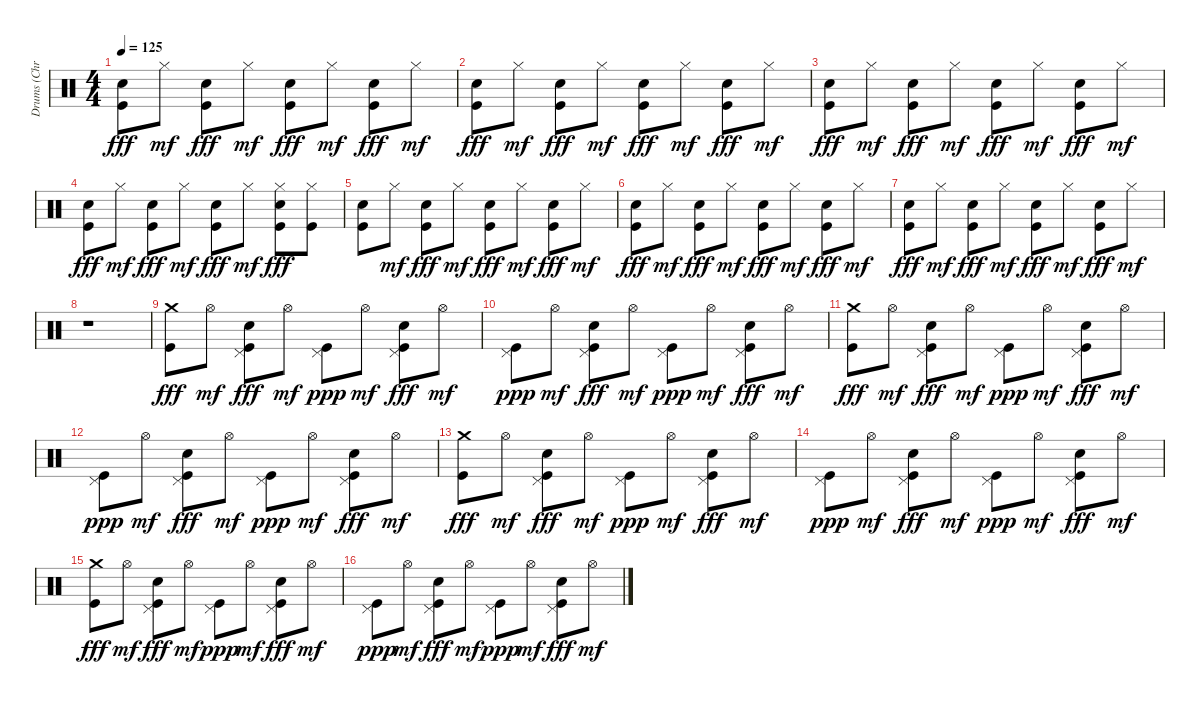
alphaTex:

\track ("Drums (Christoph)" "Drums (Chr") {instrument percussion}
\staff {score}
\articulation defaults
\ts (4 4)
\tempo 125
\clef neutral
\ks c
("Kick (hit)" "Electric Snare (hit)").8{dy fff} "Hi-Hat (closed)".8{dy mf} ("Kick (hit)" "Electric Snare (hit)").8{dy fff} "Hi-Hat (closed)".8{dy mf} ("Kick (hit)" "Electric Snare (hit)").8{dy fff} "Hi-Hat (closed)".8{dy mf} ("Kick (hit)" "Electric Snare (hit)").8{dy fff} "Hi-Hat (closed)".8{dy mf} |
("Kick (hit)" "Electric Snare (hit)").8{dy fff} "Hi-Hat (closed)".8{dy mf} ("Kick (hit)" "Electric Snare (hit)").8{dy fff} "Hi-Hat (closed)".8{dy mf} ("Kick (hit)" "Electric Snare (hit)").8{dy fff} "Hi-Hat (closed)".8{dy mf} ("Kick (hit)" "Electric Snare (hit)").8{dy fff} "Hi-Hat (closed)".8{dy mf} |
("Kick (hit)" "Electric Snare (hit)").8{dy fff} "Hi-Hat (closed)".8{dy mf} ("Kick (hit)" "Electric Snare (hit)").8{dy fff} "Hi-Hat (closed)".8{dy mf} ("Kick (hit)" "Electric Snare (hit)").8{dy fff} "Hi-Hat (closed)".8{dy mf} ("Kick (hit)" "Electric Snare (hit)").8{dy fff} "Hi-Hat (closed)".8{dy mf} |
("Kick (hit)" "Electric Snare (hit)").8{dy fff} "Hi-Hat (closed)".8{dy mf} ("Kick (hit)" "Electric Snare (hit)").8{dy fff} "Hi-Hat (closed)".8{dy mf} ("Kick (hit)" "Electric Snare (hit)").8{dy fff} "Hi-Hat (closed)".8{dy mf} ("Electric Snare (hit)" "Hi-Hat (closed)" "Kick (hit)").8{dy fff} ("Hi-Hat (closed)" "Kick (hit)").8 |
("Electric Snare (hit)" "Kick (hit)").8 "Hi-Hat (closed)".8{dy mf} ("Electric Snare (hit)" "Kick (hit)").8{dy fff} "Hi-Hat (closed)".8{dy mf} ("Electric Snare (hit)" "Kick (hit)").8{dy fff} "Hi-Hat (closed)".8{dy mf} ("Electric Snare (hit)" "Kick (hit)").8{dy fff} "Hi-Hat (closed)".8{dy mf} |
("Electric Snare (hit)" "Kick (hit)").8{dy fff} "Hi-Hat (closed)".8{dy mf} ("Electric Snare (hit)" "Kick (hit)").8{dy fff} "Hi-Hat (closed)".8{dy mf} ("Electric Snare (hit)" "Kick (hit)").8{dy fff} "Hi-Hat (closed)".8{dy mf} ("Electric Snare (hit)" "Kick (hit)").8{dy fff} "Hi-Hat (closed)".8{dy mf} |
("Electric Snare (hit)" "Kick (hit)").8{dy fff} "Hi-Hat (closed)".8{dy mf} ("Electric Snare (hit)" "Kick (hit)").8{dy fff} "Hi-Hat (closed)".8{dy mf} ("Electric Snare (hit)" "Kick (hit)").8{dy fff} "Hi-Hat (closed)".8{dy mf} ("Electric Snare (hit)" "Kick (hit)").8{dy fff} "Hi-Hat (closed)".8{dy mf} |
r.1 |
("Kick (hit)" "Crash medium (hit)").8{dy fff} "Hi-Hat (open)".8{dy mf} ("Kick (hit)" "Pedal Hi-Hat (hit)" "Electric Snare (hit)").8{dy fff} "Hi-Hat (open)".8{dy mf} ("Kick (hit)" "Pedal Hi-Hat (hit)").8{dy ppp} "Hi-Hat (open)".8{dy mf} ("Kick (hit)" "Pedal Hi-Hat (hit)" "Electric Snare (hit)").8{dy fff} "Hi-Hat (open)".8{dy mf} |
("Kick (hit)" "Pedal Hi-Hat (hit)").8{dy ppp} "Hi-Hat (open)".8{dy mf} ("Kick (hit)" "Pedal Hi-Hat (hit)" "Electric Snare (hit)").8{dy fff} "Hi-Hat (open)".8{dy mf} ("Kick (hit)" "Pedal Hi-Hat (hit)").8{dy ppp} "Hi-Hat (open)".8{dy mf} ("Kick (hit)" "Pedal Hi-Hat (hit)" "Electric Snare (hit)").8{dy fff} "Hi-Hat (open)".8{dy mf} |
("Kick (hit)" "Crash medium (hit)").8{dy fff} "Hi-Hat (open)".8{dy mf} ("Kick (hit)" "Pedal Hi-Hat (hit)" "Electric Snare (hit)").8{dy fff} "Hi-Hat (open)".8{dy mf} ("Kick (hit)" "Pedal Hi-Hat (hit)").8{dy ppp} "Hi-Hat (open)".8{dy mf} ("Kick (hit)" "Pedal Hi-Hat (hit)" "Electric Snare (hit)").8{dy fff} "Hi-Hat (open)".8{dy mf} |
("Kick (hit)" "Pedal Hi-Hat (hit)").8{dy ppp} "Hi-Hat (open)".8{dy mf} ("Kick (hit)" "Pedal Hi-Hat (hit)" "Electric Snare (hit)").8{dy fff} "Hi-Hat (open)".8{dy mf} ("Kick (hit)" "Pedal Hi-Hat (hit)").8{dy ppp} "Hi-Hat (open)".8{dy mf} ("Kick (hit)" "Pedal Hi-Hat (hit)" "Electric Snare (hit)").8{dy fff} "Hi-Hat (open)".8{dy mf} |
("Kick (hit)" "Crash medium (hit)").8{dy fff} "Hi-Hat (open)".8{dy mf} ("Kick (hit)" "Pedal Hi-Hat (hit)" "Electric Snare (hit)").8{dy fff} "Hi-Hat (open)".8{dy mf} ("Kick (hit)" "Pedal Hi-Hat (hit)").8{dy ppp} "Hi-Hat (open)".8{dy mf} ("Kick (hit)" "Pedal Hi-Hat (hit)" "Electric Snare (hit)").8{dy fff} "Hi-Hat (open)".8{dy mf} |
("Kick (hit)" "Pedal Hi-Hat (hit)").8{dy ppp} "Hi-Hat (open)".8{dy mf} ("Kick (hit)" "Pedal Hi-Hat (hit)" "Electric Snare (hit)").8{dy fff} "Hi-Hat (open)".8{dy mf} ("Kick (hit)" "Pedal Hi-Hat (hit)").8{dy ppp} "Hi-Hat (open)".8{dy mf} ("Kick (hit)" "Pedal Hi-Hat (hit)" "Electric Snare (hit)").8{dy fff} "Hi-Hat (open)".8{dy mf} |
("Kick (hit)" "Crash medium (hit)").8{dy fff} "Hi-Hat (open)".8{dy mf} ("Kick (hit)" "Pedal Hi-Hat (hit)" "Electric Snare (hit)").8{dy fff} "Hi-Hat (open)".8{dy mf} ("Kick (hit)" "Pedal Hi-Hat (hit)").8{dy ppp} "Hi-Hat (open)".8{dy mf} ("Kick (hit)" "Pedal Hi-Hat (hit)" "Electric Snare (hit)").8{dy fff} "Hi-Hat (open)".8{dy mf} |
("Kick (hit)" "Pedal Hi-Hat (hit)").8{dy ppp} "Hi-Hat (open)".8{dy mf} ("Kick (hit)" "Pedal Hi-Hat (hit)" "Electric Snare (hit)").8{dy fff} "Hi-Hat (open)".8{dy mf} ("Kick (hit)" "Pedal Hi-Hat (hit)").8{dy ppp} "Hi-Hat (open)".8{dy mf} ("Kick (hit)" "Pedal Hi-Hat (hit)" "Electric Snare (hit)").8{dy fff} "Hi-Hat (open)".8{dy mf}
